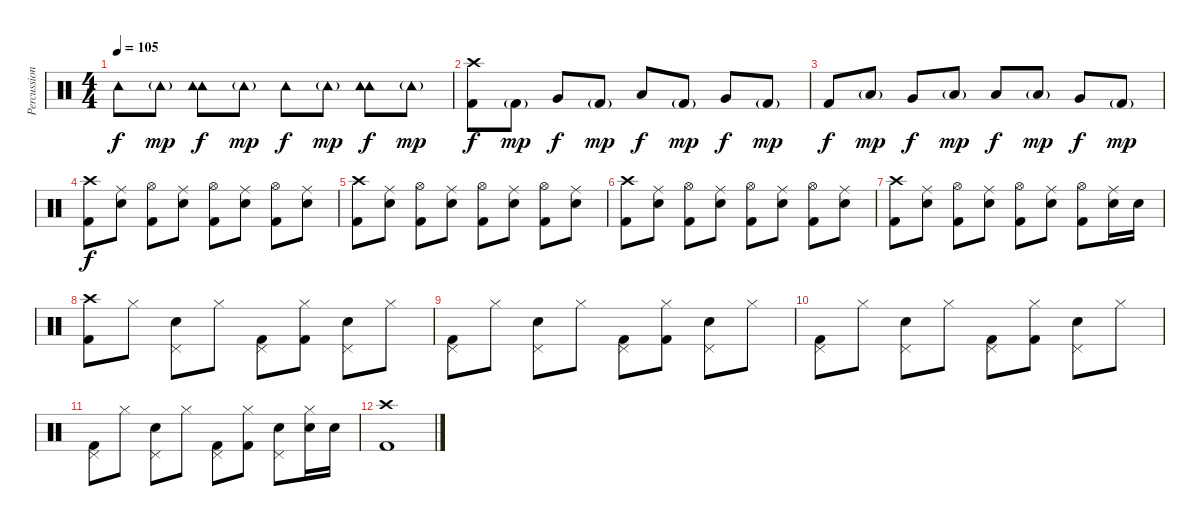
\track ("Percussion" "Percussion") {instrument percussion}
\staff {score}
\articulation defaults
\ts (4 4)
\tempo 105
\clef neutral
\ks c "Tambourine (hit)".8{dy f} "Tambourine (hit)"{g}.8{dy mp}
("Tambourine (hit)" "Tambourine (hit)").8{dy f} "Tambourine (hit)"{g}.8{dy mp} "Tambourine (hit)".8{dy f} "Tambourine (hit)"{g}.8{dy mp} ("Tambourine (hit)" "Tambourine (hit)").8{dy f} "Tambourine (hit)"{g}.8{dy mp} |
("Kick (hit) 2" "Crash high (hit)").8{dy f} "Kick (hit) 2"{g}.8{dy mp} "Very Low Tom (hit)".8{dy f} "Kick (hit) 2"{g}.8{dy mp} "Low Floor Tom (hit)".8{dy f} "Kick (hit) 2"{g}.8{dy mp} "Very Low Tom (hit)".8{dy f} "Kick (hit) 2"{g}.8{dy mp} |
"Kick (hit) 2".8{dy f} "Low Tom (hit)"{g}.8{dy mp} "Very Low Tom (hit)".8{dy f} "Low Tom (hit)"{g}.8{dy mp} "Low Floor Tom (hit)".8{dy f} "Low Tom (hit)"{g}.8{dy mp} "Very Low Tom (hit)".8{dy f} "Kick (hit) 2"{g}.8{dy mp} |
("Kick (hit) 2" "Crash high (hit)").8{dy f} ("Electric Snare (hit)" "Ride (middle)").8 ("Kick (hit) 2" "Hi-Hat (open)").8 ("Electric Snare (hit)" "Ride (middle)").8 ("Kick (hit) 2" "Hi-Hat (open)").8 ("Electric Snare (hit)" "Ride (middle)").8 ("Kick (hit) 2" "Hi-Hat (open)").8 ("Electric Snare (hit)" "Ride (middle)").8 |
("Kick (hit) 2" "Crash high (hit)").8 ("Electric Snare (hit)" "Ride (middle)").8 ("Kick (hit) 2" "Hi-Hat (open)").8 ("Electric Snare (hit)" "Ride (middle)").8 ("Kick (hit) 2" "Hi-Hat (open)").8 ("Electric Snare (hit)" "Ride (middle)").8 ("Kick (hit) 2" "Hi-Hat (open)").8 ("Electric Snare (hit)" "Ride (middle)").8 |
("Kick (hit) 2" "Crash high (hit)").8 ("Electric Snare (hit)" "Ride (middle)").8 ("Kick (hit) 2" "Hi-Hat (open)").8 ("Electric Snare (hit)" "Ride (middle)").8 ("Kick (hit) 2" "Hi-Hat (open)").8 ("Electric Snare (hit)" "Ride (middle)").8 ("Kick (hit) 2" "Hi-Hat (open)").8 ("Electric Snare (hit)" "Ride (middle)").8 |
("Kick (hit) 2" "Crash high (hit)").8 ("Electric Snare (hit)" "Ride (middle)").8 ("Kick (hit) 2" "Hi-Hat (open)").8 ("Electric Snare (hit)" "Ride (middle)").8 ("Kick (hit) 2" "Hi-Hat (open)").8 ("Electric Snare (hit)" "Ride (middle)").8 ("Kick (hit) 2" "Hi-Hat (open)").8 ("Electric Snare (hit)" "Ride (middle)").16 "Electric Snare (hit)".16 |
("Kick (hit) 2" "Crash high (hit)").8 "Hi-Hat (closed)".8 ("Electric Snare (hit)" "Pedal Hi-Hat (hit)").8 "Hi-Hat (closed)".8 ("Kick (hit) 2" "Pedal Hi-Hat (hit)").8 ("Kick (hit) 2" "Hi-Hat (closed)").8 ("Electric Snare (hit)" "Pedal Hi-Hat (hit)").8 "Hi-Hat (closed)".8 |
("Kick (hit) 2" "Pedal Hi-Hat (hit)").8 "Hi-Hat (closed)".8 ("Electric Snare (hit)" "Pedal Hi-Hat (hit)").8 "Hi-Hat (closed)".8 ("Kick (hit) 2" "Pedal Hi-Hat (hit)").8 ("Kick (hit) 2" "Hi-Hat (closed)").8 ("Electric Snare (hit)" "Pedal Hi-Hat (hit)").8 "Hi-Hat (closed)".8 |
("Kick (hit) 2" "Pedal Hi-Hat (hit)").8 "Hi-Hat (closed)".8 ("Electric Snare (hit)" "Pedal Hi-Hat (hit)").8 "Hi-Hat (closed)".8 ("Kick (hit) 2" "Pedal Hi-Hat (hit)").8 ("Kick (hit) 2" "Hi-Hat (closed)").8 ("Electric Snare (hit)" "Pedal Hi-Hat (hit)").8 "Hi-Hat (closed)".8 |
("Kick (hit) 2" "Pedal Hi-Hat (hit)").8 "Hi-Hat (closed)".8 ("Electric Snare (hit)" "Pedal Hi-Hat (hit)").8 "Hi-Hat (closed)".8 ("Kick (hit) 2" "Pedal Hi-Hat (hit)").8 ("Kick (hit) 2" "Hi-Hat (closed)").8 ("Electric Snare (hit)" "Pedal Hi-Hat (hit)").8 ("Electric Snare (hit)" "Hi-Hat (closed)").16 "Electric Snare (hit)".16 |
("Kick (hit) 2" "Crash high (hit)").1
